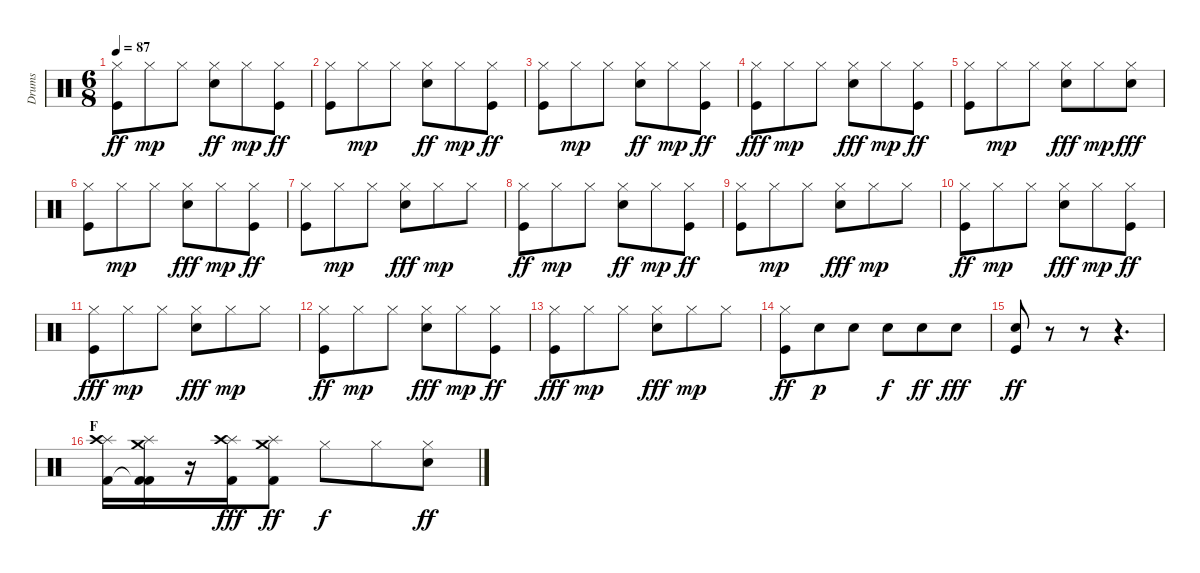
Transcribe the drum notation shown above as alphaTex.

\track ("Drums" "Drums") {instrument percussion}
\staff {score}
\articulation defaults
\ts (6 8)
\tempo 87
\clef neutral
\ks c
("Hi-Hat (closed)" "Kick (hit)").8{dy ff} "Hi-Hat (closed)".8{dy mp} "Hi-Hat (closed)".8 ("Hi-Hat (closed)" "Snare (hit) 2").8{dy ff} "Hi-Hat (closed)".8{dy mp} ("Hi-Hat (closed)" "Kick (hit)").8{dy ff} |
("Hi-Hat (closed)" "Kick (hit)").8 "Hi-Hat (closed)".8{dy mp} "Hi-Hat (closed)".8 ("Hi-Hat (closed)" "Snare (hit) 2").8{dy ff} "Hi-Hat (closed)".8{dy mp} ("Hi-Hat (closed)" "Kick (hit)").8{dy ff} |
("Hi-Hat (closed)" "Kick (hit)").8 "Hi-Hat (closed)".8{dy mp} "Hi-Hat (closed)".8 ("Hi-Hat (closed)" "Snare (hit) 2").8{dy ff} "Hi-Hat (closed)".8{dy mp} ("Hi-Hat (closed)" "Kick (hit)").8{dy ff} |
("Hi-Hat (closed)" "Kick (hit)").8{dy fff} "Hi-Hat (closed)".8{dy mp} "Hi-Hat (closed)".8 ("Hi-Hat (closed)" "Snare (hit) 2").8{dy fff} "Hi-Hat (closed)".8{dy mp} ("Hi-Hat (closed)" "Kick (hit)").8{dy ff} |
("Hi-Hat (closed)" "Kick (hit)").8 "Hi-Hat (closed)".8{dy mp} "Hi-Hat (closed)".8 ("Hi-Hat (closed)" "Snare (hit) 2").8{dy fff} "Hi-Hat (closed)".8{dy mp} ("Hi-Hat (closed)" "Snare (hit) 2").8{dy fff} |
("Hi-Hat (closed)" "Kick (hit)").8 "Hi-Hat (closed)".8{dy mp} "Hi-Hat (closed)".8 ("Hi-Hat (closed)" "Snare (hit) 2").8{dy fff} "Hi-Hat (closed)".8{dy mp} ("Hi-Hat (closed)" "Kick (hit)").8{dy ff} |
("Hi-Hat (closed)" "Kick (hit)").8 "Hi-Hat (closed)".8{dy mp} "Hi-Hat (closed)".8 ("Hi-Hat (closed)" "Snare (hit) 2").8{dy fff} "Hi-Hat (closed)".8{dy mp} "Hi-Hat (closed)".8 |
("Hi-Hat (closed)" "Kick (hit)").8{dy ff} "Hi-Hat (closed)".8{dy mp} "Hi-Hat (closed)".8 ("Hi-Hat (closed)" "Snare (hit) 2").8{dy ff} "Hi-Hat (closed)".8{dy mp} ("Hi-Hat (closed)" "Kick (hit)").8{dy ff} |
("Hi-Hat (closed)" "Kick (hit)").8 "Hi-Hat (closed)".8{dy mp} "Hi-Hat (closed)".8 ("Hi-Hat (closed)" "Snare (hit) 2").8{dy fff} "Hi-Hat (closed)".8{dy mp} "Hi-Hat (closed)".8 |
("Hi-Hat (closed)" "Kick (hit)").8{dy ff} "Hi-Hat (closed)".8{dy mp} "Hi-Hat (closed)".8 ("Hi-Hat (closed)" "Snare (hit) 2").8{dy fff} "Hi-Hat (closed)".8{dy mp} ("Hi-Hat (closed)" "Kick (hit)").8{dy ff} |
("Hi-Hat (closed)" "Kick (hit)").8{dy fff} "Hi-Hat (closed)".8{dy mp} "Hi-Hat (closed)".8 ("Hi-Hat (closed)" "Snare (hit) 2").8{dy fff} "Hi-Hat (closed)".8{dy mp} "Hi-Hat (closed)".8 |
("Hi-Hat (closed)" "Kick (hit)").8{dy ff} "Hi-Hat (closed)".8{dy mp} "Hi-Hat (closed)".8 ("Hi-Hat (closed)" "Snare (hit) 2").8{dy fff} "Hi-Hat (closed)".8{dy mp} ("Hi-Hat (closed)" "Kick (hit)").8{dy ff} |
("Hi-Hat (closed)" "Kick (hit)").8{dy fff} "Hi-Hat (closed)".8{dy mp} "Hi-Hat (closed)".8 ("Hi-Hat (closed)" "Snare (hit) 2").8{dy fff} "Hi-Hat (closed)".8{dy mp} "Hi-Hat (closed)".8 |
("Hi-Hat (closed)" "Kick (hit)").8{dy ff} "Snare (hit) 2".8{dy p} "Snare (hit) 2".8 "Snare (hit) 2".8{dy f} "Snare (hit) 2".8{dy ff} "Snare (hit) 2".8{dy fff} |
("Snare (hit) 2" "Kick (hit)").8{dy ff} r.8 r.8 r.4{d} |
\section ("" "F")
("Splash (hit)" "Crash high (hit)" "Kick (hit) 2").16 ("Crash medium (hit)" "Splash (hit)" "Kick (hit) 2"{t} "Kick (hit) 2").16 r.16 ("Splash (hit)" "Crash high (hit)" "Kick (hit) 2").16{dy fff} ("Crash medium (hit)" "Splash (hit)" "Kick (hit) 2").8{dy ff} "Hi-Hat (closed)".8{dy f} "Hi-Hat (closed)".8 ("Hi-Hat (closed)" "Snare (hit) 2").8{dy ff}
